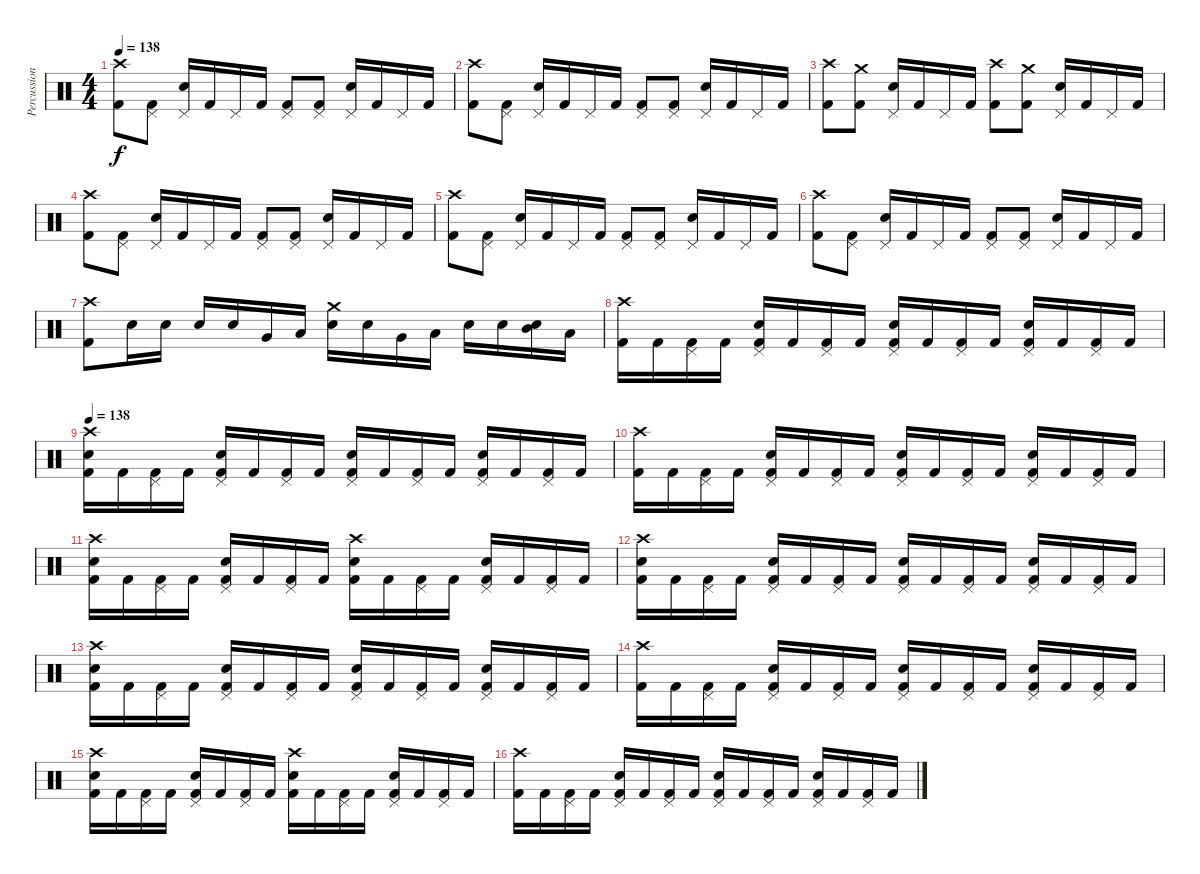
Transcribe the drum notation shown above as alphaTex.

\track ("Percussion" "Percussion") {instrument percussion}
\staff {score}
\articulation defaults
\ts (4 4)
\tempo 138
\clef neutral
\ks c
("Crash high (hit)" "Kick (hit) 2").8{dy f} ("Pedal Hi-Hat (hit)" "Kick (hit) 2").8 ("Pedal Hi-Hat (hit)" "Snare (hit) 2").16 "Kick (hit) 2".16 "Pedal Hi-Hat (hit)".16 "Kick (hit) 2".16 ("Pedal Hi-Hat (hit)" "Kick (hit) 2").8 ("Pedal Hi-Hat (hit)" "Kick (hit) 2").8 ("Pedal Hi-Hat (hit)" "Snare (hit) 2").16 "Kick (hit) 2".16 "Pedal Hi-Hat (hit)".16 "Kick (hit) 2".16 |
("Crash high (hit)" "Kick (hit) 2").8 ("Pedal Hi-Hat (hit)" "Kick (hit) 2").8 ("Pedal Hi-Hat (hit)" "Snare (hit) 2").16 "Kick (hit) 2".16 "Pedal Hi-Hat (hit)".16 "Kick (hit) 2".16 ("Pedal Hi-Hat (hit)" "Kick (hit) 2").8 ("Pedal Hi-Hat (hit)" "Kick (hit) 2").8 ("Pedal Hi-Hat (hit)" "Snare (hit) 2").16 "Kick (hit) 2".16 "Pedal Hi-Hat (hit)".16 "Kick (hit) 2".16 |
("Crash high (hit)" "Kick (hit) 2").8 ("Crash medium (hit)" "Kick (hit) 2").8 ("Pedal Hi-Hat (hit)" "Snare (hit) 2").16 "Kick (hit) 2".16 "Pedal Hi-Hat (hit)".16 "Kick (hit) 2".16 ("Crash high (hit)" "Kick (hit) 2").8 ("Crash medium (hit)" "Kick (hit) 2").8 ("Pedal Hi-Hat (hit)" "Snare (hit) 2").16 "Kick (hit) 2".16 "Pedal Hi-Hat (hit)".16 "Kick (hit) 2".16 |
("Crash high (hit)" "Kick (hit) 2").8 ("Pedal Hi-Hat (hit)" "Kick (hit) 2").8 ("Pedal Hi-Hat (hit)" "Snare (hit) 2").16 "Kick (hit) 2".16 "Pedal Hi-Hat (hit)".16 "Kick (hit) 2".16 ("Pedal Hi-Hat (hit)" "Kick (hit) 2").8 ("Pedal Hi-Hat (hit)" "Kick (hit) 2").8 ("Pedal Hi-Hat (hit)" "Snare (hit) 2").16 "Kick (hit) 2".16 "Pedal Hi-Hat (hit)".16 "Kick (hit) 2".16 |
("Crash high (hit)" "Kick (hit) 2").8 ("Pedal Hi-Hat (hit)" "Kick (hit) 2").8 ("Pedal Hi-Hat (hit)" "Snare (hit) 2").16 "Kick (hit) 2".16 "Pedal Hi-Hat (hit)".16 "Kick (hit) 2".16 ("Pedal Hi-Hat (hit)" "Kick (hit) 2").8 ("Pedal Hi-Hat (hit)" "Kick (hit) 2").8 ("Pedal Hi-Hat (hit)" "Snare (hit) 2").16 "Kick (hit) 2".16 "Pedal Hi-Hat (hit)".16 "Kick (hit) 2".16 |
("Crash high (hit)" "Kick (hit) 2").8 ("Pedal Hi-Hat (hit)" "Kick (hit) 2").8 ("Pedal Hi-Hat (hit)" "Snare (hit) 2").16 "Kick (hit) 2".16 "Pedal Hi-Hat (hit)".16 "Kick (hit) 2".16 ("Pedal Hi-Hat (hit)" "Kick (hit) 2").8 ("Pedal Hi-Hat (hit)" "Kick (hit) 2").8 ("Pedal Hi-Hat (hit)" "Snare (hit) 2").16 "Kick (hit) 2".16 "Pedal Hi-Hat (hit)".16 "Kick (hit) 2".16 |
("Crash high (hit)" "Kick (hit) 2").8 "Snare (hit) 2".16 "Snare (hit) 2".16 "Snare (hit) 2".16 "Snare (hit) 2".16 "Very Low Tom (hit)".16 "Low Floor Tom (hit)".16 ("Crash medium (hit)" "Snare (hit) 2").16 "Snare (hit) 2".16 "Very Low Tom (hit)".16 "Low Floor Tom (hit)".16 "Snare (hit) 2".16 "Snare (hit) 2".16 ("Snare (hit) 2" "Mid Tom (hit)").16 "Low Tom (hit)".16 |
("Crash high (hit)" "Kick (hit) 2").16 "Kick (hit) 2".16 ("Pedal Hi-Hat (hit)" "Kick (hit) 2").16 "Kick (hit) 2".16 ("Pedal Hi-Hat (hit)" "Snare (hit) 2" "Kick (hit) 2").16 "Kick (hit) 2".16 ("Pedal Hi-Hat (hit)" "Kick (hit) 2").16 "Kick (hit) 2".16 ("Pedal Hi-Hat (hit)" "Snare (hit) 2" "Kick (hit) 2").16 "Kick (hit) 2".16 ("Pedal Hi-Hat (hit)" "Kick (hit) 2").16 "Kick (hit) 2".16 ("Pedal Hi-Hat (hit)" "Snare (hit) 2" "Kick (hit) 2").16 "Kick (hit) 2".16 ("Pedal Hi-Hat (hit)" "Kick (hit) 2").16 "Kick (hit) 2".16 |
\tempo 138
("Crash high (hit)" "Snare (hit) 2" "Kick (hit) 2").16 "Kick (hit) 2".16 ("Pedal Hi-Hat (hit)" "Kick (hit) 2").16 "Kick (hit) 2".16 ("Pedal Hi-Hat (hit)" "Snare (hit) 2" "Kick (hit) 2").16 "Kick (hit) 2".16 ("Pedal Hi-Hat (hit)" "Kick (hit) 2").16 "Kick (hit) 2".16 ("Pedal Hi-Hat (hit)" "Snare (hit) 2" "Kick (hit) 2").16 "Kick (hit) 2".16 ("Pedal Hi-Hat (hit)" "Kick (hit) 2").16 "Kick (hit) 2".16 ("Pedal Hi-Hat (hit)" "Snare (hit) 2" "Kick (hit) 2").16 "Kick (hit) 2".16 ("Pedal Hi-Hat (hit)" "Kick (hit) 2").16 "Kick (hit) 2".16 |
("Crash high (hit)" "Kick (hit) 2").16 "Kick (hit) 2".16 ("Pedal Hi-Hat (hit)" "Kick (hit) 2").16 "Kick (hit) 2".16 ("Pedal Hi-Hat (hit)" "Snare (hit) 2" "Kick (hit) 2").16 "Kick (hit) 2".16 ("Pedal Hi-Hat (hit)" "Kick (hit) 2").16 "Kick (hit) 2".16 ("Pedal Hi-Hat (hit)" "Snare (hit) 2" "Kick (hit) 2").16 "Kick (hit) 2".16 ("Pedal Hi-Hat (hit)" "Kick (hit) 2").16 "Kick (hit) 2".16 ("Pedal Hi-Hat (hit)" "Snare (hit) 2" "Kick (hit) 2").16 "Kick (hit) 2".16 ("Pedal Hi-Hat (hit)" "Kick (hit) 2").16 "Kick (hit) 2".16 |
("Crash high (hit)" "Snare (hit) 2" "Kick (hit) 2").16 "Kick (hit) 2".16 ("Pedal Hi-Hat (hit)" "Kick (hit) 2").16 "Kick (hit) 2".16 ("Pedal Hi-Hat (hit)" "Snare (hit) 2" "Kick (hit) 2").16 "Kick (hit) 2".16 ("Pedal Hi-Hat (hit)" "Kick (hit) 2").16 "Kick (hit) 2".16 ("Crash high (hit)" "Snare (hit) 2" "Kick (hit) 2").16 "Kick (hit) 2".16 ("Pedal Hi-Hat (hit)" "Kick (hit) 2").16 "Kick (hit) 2".16 ("Pedal Hi-Hat (hit)" "Snare (hit) 2" "Kick (hit) 2").16 "Kick (hit) 2".16 ("Pedal Hi-Hat (hit)" "Kick (hit) 2").16 "Kick (hit) 2".16 |
("Crash high (hit)" "Snare (hit) 2" "Kick (hit) 2").16 "Kick (hit) 2".16 ("Pedal Hi-Hat (hit)" "Kick (hit) 2").16 "Kick (hit) 2".16 ("Pedal Hi-Hat (hit)" "Snare (hit) 2" "Kick (hit) 2").16 "Kick (hit) 2".16 ("Pedal Hi-Hat (hit)" "Kick (hit) 2").16 "Kick (hit) 2".16 ("Pedal Hi-Hat (hit)" "Snare (hit) 2" "Kick (hit) 2").16 "Kick (hit) 2".16 ("Pedal Hi-Hat (hit)" "Kick (hit) 2").16 "Kick (hit) 2".16 ("Pedal Hi-Hat (hit)" "Snare (hit) 2" "Kick (hit) 2").16 "Kick (hit) 2".16 ("Pedal Hi-Hat (hit)" "Kick (hit) 2").16 "Kick (hit) 2".16 |
("Crash high (hit)" "Snare (hit) 2" "Kick (hit) 2").16 "Kick (hit) 2".16 ("Pedal Hi-Hat (hit)" "Kick (hit) 2").16 "Kick (hit) 2".16 ("Pedal Hi-Hat (hit)" "Snare (hit) 2" "Kick (hit) 2").16 "Kick (hit) 2".16 ("Pedal Hi-Hat (hit)" "Kick (hit) 2").16 "Kick (hit) 2".16 ("Pedal Hi-Hat (hit)" "Snare (hit) 2" "Kick (hit) 2").16 "Kick (hit) 2".16 ("Pedal Hi-Hat (hit)" "Kick (hit) 2").16 "Kick (hit) 2".16 ("Pedal Hi-Hat (hit)" "Snare (hit) 2" "Kick (hit) 2").16 "Kick (hit) 2".16 ("Pedal Hi-Hat (hit)" "Kick (hit) 2").16 "Kick (hit) 2".16 |
("Crash high (hit)" "Kick (hit) 2").16 "Kick (hit) 2".16 ("Pedal Hi-Hat (hit)" "Kick (hit) 2").16 "Kick (hit) 2".16 ("Pedal Hi-Hat (hit)" "Snare (hit) 2" "Kick (hit) 2").16 "Kick (hit) 2".16 ("Pedal Hi-Hat (hit)" "Kick (hit) 2").16 "Kick (hit) 2".16 ("Pedal Hi-Hat (hit)" "Snare (hit) 2" "Kick (hit) 2").16 "Kick (hit) 2".16 ("Pedal Hi-Hat (hit)" "Kick (hit) 2").16 "Kick (hit) 2".16 ("Pedal Hi-Hat (hit)" "Snare (hit) 2" "Kick (hit) 2").16 "Kick (hit) 2".16 ("Pedal Hi-Hat (hit)" "Kick (hit) 2").16 "Kick (hit) 2".16 |
("Crash high (hit)" "Snare (hit) 2" "Kick (hit) 2").16 "Kick (hit) 2".16 ("Pedal Hi-Hat (hit)" "Kick (hit) 2").16 "Kick (hit) 2".16 ("Pedal Hi-Hat (hit)" "Snare (hit) 2" "Kick (hit) 2").16 "Kick (hit) 2".16 ("Pedal Hi-Hat (hit)" "Kick (hit) 2").16 "Kick (hit) 2".16 ("Crash high (hit)" "Snare (hit) 2" "Kick (hit) 2").16 "Kick (hit) 2".16 ("Pedal Hi-Hat (hit)" "Kick (hit) 2").16 "Kick (hit) 2".16 ("Pedal Hi-Hat (hit)" "Snare (hit) 2" "Kick (hit) 2").16 "Kick (hit) 2".16 ("Pedal Hi-Hat (hit)" "Kick (hit) 2").16 "Kick (hit) 2".16 |
("Crash high (hit)" "Kick (hit) 2").16 "Kick (hit) 2".16 ("Pedal Hi-Hat (hit)" "Kick (hit) 2").16 "Kick (hit) 2".16 ("Pedal Hi-Hat (hit)" "Snare (hit) 2" "Kick (hit) 2").16 "Kick (hit) 2".16 ("Pedal Hi-Hat (hit)" "Kick (hit) 2").16 "Kick (hit) 2".16 ("Pedal Hi-Hat (hit)" "Snare (hit) 2" "Kick (hit) 2").16 "Kick (hit) 2".16 ("Pedal Hi-Hat (hit)" "Kick (hit) 2").16 "Kick (hit) 2".16 ("Pedal Hi-Hat (hit)" "Snare (hit) 2" "Kick (hit) 2").16 "Kick (hit) 2".16 ("Pedal Hi-Hat (hit)" "Kick (hit) 2").16 "Kick (hit) 2".16
